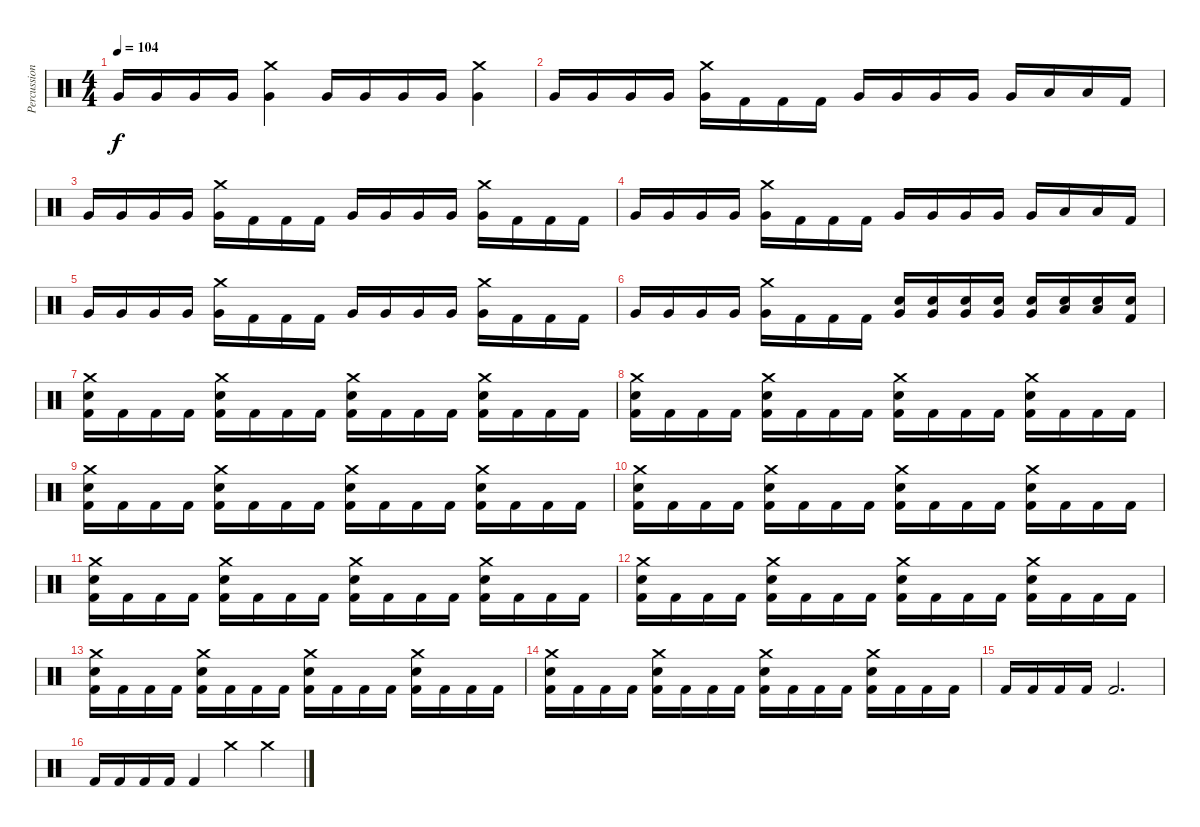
\track ("Percussion" "Percussion") {instrument percussion}
\staff {score}
\articulation defaults
\ts (4 4)
\tempo 104
\clef neutral
\ks c "Very Low Tom (hit)".16{dy f} "Very Low Tom (hit)".16 "Very Low Tom (hit)".16 "Very Low Tom (hit)".16
("Crash medium (hit)" "Very Low Tom (hit)").4 "Very Low Tom (hit)".16 "Very Low Tom (hit)".16 "Very Low Tom (hit)".16 "Very Low Tom (hit)".16 ("Crash medium (hit)" "Very Low Tom (hit)").4 |
"Very Low Tom (hit)".16 "Very Low Tom (hit)".16 "Very Low Tom (hit)".16 "Very Low Tom (hit)".16 ("Crash medium (hit)" "Very Low Tom (hit)").16 "Kick (hit) 2".16 "Kick (hit) 2".16 "Kick (hit) 2".16 "Very Low Tom (hit)".16 "Very Low Tom (hit)".16 "Very Low Tom (hit)".16 "Very Low Tom (hit)".16 "Very Low Tom (hit)".16 "Low Floor Tom (hit)".16 "Low Floor Tom (hit)".16 "Kick (hit) 2".16 |
"Very Low Tom (hit)".16 "Very Low Tom (hit)".16 "Very Low Tom (hit)".16 "Very Low Tom (hit)".16 ("Crash medium (hit)" "Very Low Tom (hit)").16 "Kick (hit) 2".16 "Kick (hit) 2".16 "Kick (hit) 2".16 "Very Low Tom (hit)".16 "Very Low Tom (hit)".16 "Very Low Tom (hit)".16 "Very Low Tom (hit)".16 ("Crash medium (hit)" "Very Low Tom (hit)").16 "Kick (hit) 2".16 "Kick (hit) 2".16 "Kick (hit) 2".16 |
"Very Low Tom (hit)".16 "Very Low Tom (hit)".16 "Very Low Tom (hit)".16 "Very Low Tom (hit)".16 ("Crash medium (hit)" "Very Low Tom (hit)").16 "Kick (hit) 2".16 "Kick (hit) 2".16 "Kick (hit) 2".16 "Very Low Tom (hit)".16 "Very Low Tom (hit)".16 "Very Low Tom (hit)".16 "Very Low Tom (hit)".16 "Very Low Tom (hit)".16 "Low Floor Tom (hit)".16 "Low Floor Tom (hit)".16 "Kick (hit) 2".16 |
"Very Low Tom (hit)".16 "Very Low Tom (hit)".16 "Very Low Tom (hit)".16 "Very Low Tom (hit)".16 ("Crash medium (hit)" "Very Low Tom (hit)").16 "Kick (hit) 2".16 "Kick (hit) 2".16 "Kick (hit) 2".16 "Very Low Tom (hit)".16 "Very Low Tom (hit)".16 "Very Low Tom (hit)".16 "Very Low Tom (hit)".16 ("Crash medium (hit)" "Very Low Tom (hit)").16 "Kick (hit) 2".16 "Kick (hit) 2".16 "Kick (hit) 2".16 |
"Very Low Tom (hit)".16 "Very Low Tom (hit)".16 "Very Low Tom (hit)".16 "Very Low Tom (hit)".16 ("Crash medium (hit)" "Very Low Tom (hit)").16 "Kick (hit) 2".16 "Kick (hit) 2".16 "Kick (hit) 2".16 ("Snare (hit) 2" "Very Low Tom (hit)").16 ("Snare (hit) 2" "Very Low Tom (hit)").16 ("Snare (hit) 2" "Very Low Tom (hit)").16 ("Snare (hit) 2" "Very Low Tom (hit)").16 ("Snare (hit) 2" "Very Low Tom (hit)").16 ("Snare (hit) 2" "Low Floor Tom (hit)").16 ("Snare (hit) 2" "Low Floor Tom (hit)").16 ("Snare (hit) 2" "Kick (hit) 2").16 |
("Crash medium (hit)" "Snare (hit) 2" "Kick (hit) 2").16 "Kick (hit) 2".16 "Kick (hit) 2".16 "Kick (hit) 2".16 ("Crash medium (hit)" "Snare (hit) 2" "Kick (hit) 2").16 "Kick (hit) 2".16 "Kick (hit) 2".16 "Kick (hit) 2".16 ("Crash medium (hit)" "Snare (hit) 2" "Kick (hit) 2").16 "Kick (hit) 2".16 "Kick (hit) 2".16 "Kick (hit) 2".16 ("Crash medium (hit)" "Snare (hit) 2" "Kick (hit) 2").16 "Kick (hit) 2".16 "Kick (hit) 2".16 "Kick (hit) 2".16 |
("Crash medium (hit)" "Snare (hit) 2" "Kick (hit) 2").16 "Kick (hit) 2".16 "Kick (hit) 2".16 "Kick (hit) 2".16 ("Crash medium (hit)" "Snare (hit) 2" "Kick (hit) 2").16 "Kick (hit) 2".16 "Kick (hit) 2".16 "Kick (hit) 2".16 ("Crash medium (hit)" "Snare (hit) 2" "Kick (hit) 2").16 "Kick (hit) 2".16 "Kick (hit) 2".16 "Kick (hit) 2".16 ("Crash medium (hit)" "Snare (hit) 2" "Kick (hit) 2").16 "Kick (hit) 2".16 "Kick (hit) 2".16 "Kick (hit) 2".16 |
("Crash medium (hit)" "Snare (hit) 2" "Kick (hit) 2").16 "Kick (hit) 2".16 "Kick (hit) 2".16 "Kick (hit) 2".16 ("Crash medium (hit)" "Snare (hit) 2" "Kick (hit) 2").16 "Kick (hit) 2".16 "Kick (hit) 2".16 "Kick (hit) 2".16 ("Crash medium (hit)" "Snare (hit) 2" "Kick (hit) 2").16 "Kick (hit) 2".16 "Kick (hit) 2".16 "Kick (hit) 2".16 ("Crash medium (hit)" "Snare (hit) 2" "Kick (hit) 2").16 "Kick (hit) 2".16 "Kick (hit) 2".16 "Kick (hit) 2".16 |
("Crash medium (hit)" "Snare (hit) 2" "Kick (hit) 2").16 "Kick (hit) 2".16 "Kick (hit) 2".16 "Kick (hit) 2".16 ("Crash medium (hit)" "Snare (hit) 2" "Kick (hit) 2").16 "Kick (hit) 2".16 "Kick (hit) 2".16 "Kick (hit) 2".16 ("Crash medium (hit)" "Snare (hit) 2" "Kick (hit) 2").16 "Kick (hit) 2".16 "Kick (hit) 2".16 "Kick (hit) 2".16 ("Crash medium (hit)" "Snare (hit) 2" "Kick (hit) 2").16 "Kick (hit) 2".16 "Kick (hit) 2".16 "Kick (hit) 2".16 |
("Crash medium (hit)" "Snare (hit) 2" "Kick (hit) 2").16 "Kick (hit) 2".16 "Kick (hit) 2".16 "Kick (hit) 2".16 ("Crash medium (hit)" "Snare (hit) 2" "Kick (hit) 2").16 "Kick (hit) 2".16 "Kick (hit) 2".16 "Kick (hit) 2".16 ("Crash medium (hit)" "Snare (hit) 2" "Kick (hit) 2").16 "Kick (hit) 2".16 "Kick (hit) 2".16 "Kick (hit) 2".16 ("Crash medium (hit)" "Snare (hit) 2" "Kick (hit) 2").16 "Kick (hit) 2".16 "Kick (hit) 2".16 "Kick (hit) 2".16 |
("Crash medium (hit)" "Snare (hit) 2" "Kick (hit) 2").16 "Kick (hit) 2".16 "Kick (hit) 2".16 "Kick (hit) 2".16 ("Crash medium (hit)" "Snare (hit) 2" "Kick (hit) 2").16 "Kick (hit) 2".16 "Kick (hit) 2".16 "Kick (hit) 2".16 ("Crash medium (hit)" "Snare (hit) 2" "Kick (hit) 2").16 "Kick (hit) 2".16 "Kick (hit) 2".16 "Kick (hit) 2".16 ("Crash medium (hit)" "Snare (hit) 2" "Kick (hit) 2").16 "Kick (hit) 2".16 "Kick (hit) 2".16 "Kick (hit) 2".16 |
("Crash medium (hit)" "Snare (hit) 2" "Kick (hit) 2").16 "Kick (hit) 2".16 "Kick (hit) 2".16 "Kick (hit) 2".16 ("Crash medium (hit)" "Snare (hit) 2" "Kick (hit) 2").16 "Kick (hit) 2".16 "Kick (hit) 2".16 "Kick (hit) 2".16 ("Crash medium (hit)" "Snare (hit) 2" "Kick (hit) 2").16 "Kick (hit) 2".16 "Kick (hit) 2".16 "Kick (hit) 2".16 ("Crash medium (hit)" "Snare (hit) 2" "Kick (hit) 2").16 "Kick (hit) 2".16 "Kick (hit) 2".16 "Kick (hit) 2".16 |
("Crash medium (hit)" "Snare (hit) 2" "Kick (hit) 2").16 "Kick (hit) 2".16 "Kick (hit) 2".16 "Kick (hit) 2".16 ("Crash medium (hit)" "Snare (hit) 2" "Kick (hit) 2").16 "Kick (hit) 2".16 "Kick (hit) 2".16 "Kick (hit) 2".16 ("Crash medium (hit)" "Snare (hit) 2" "Kick (hit) 2").16 "Kick (hit) 2".16 "Kick (hit) 2".16 "Kick (hit) 2".16 ("Crash medium (hit)" "Snare (hit) 2" "Kick (hit) 2").16 "Kick (hit) 2".16 "Kick (hit) 2".16 "Kick (hit) 2".16 |
"Kick (hit) 2".16 "Kick (hit) 2".16 "Kick (hit) 2".16 "Kick (hit) 2".16 "Kick (hit) 2".2{d} |
"Kick (hit) 2".16 "Kick (hit) 2".16 "Kick (hit) 2".16 "Kick (hit) 2".16 "Kick (hit) 2".4 "Crash medium (hit)".4 "Crash medium (hit)".4
